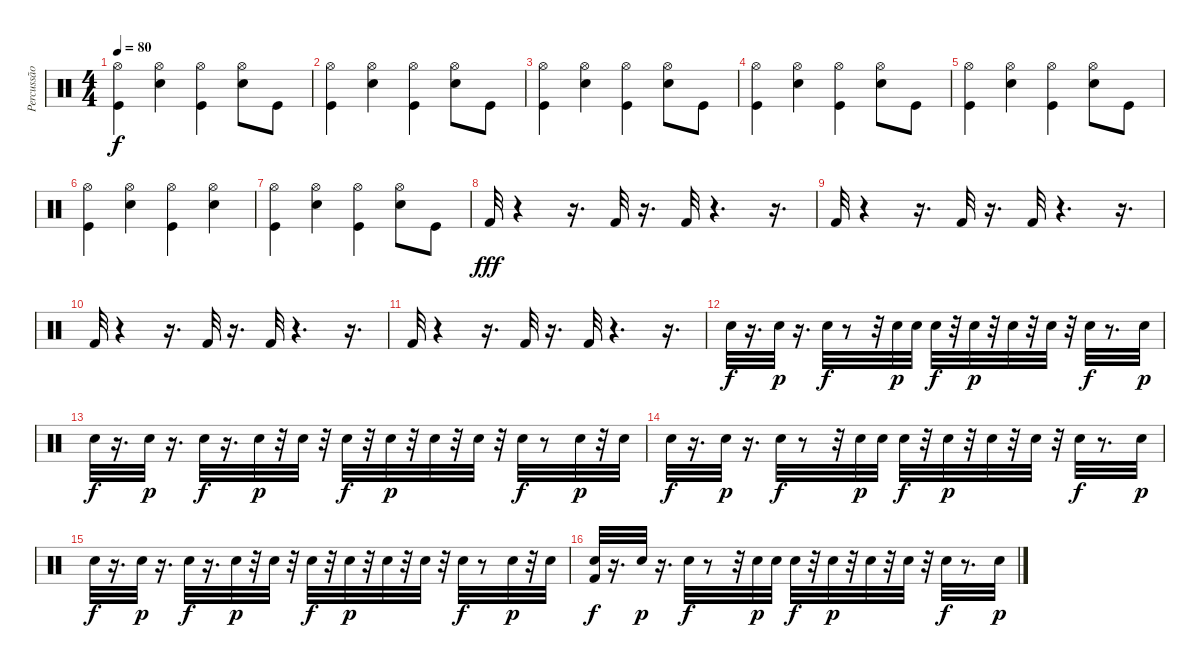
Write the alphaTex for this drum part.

\track ("Percussão" "Percussão") {instrument percussion}
\staff {score}
\articulation defaults
\ts (4 4)
\tempo 80
\clef neutral
\ks c
("Hi-Hat (open)" "Kick (hit)").4{dy f} ("Hi-Hat (open)" "Electric Snare (hit)").4 ("Hi-Hat (open)" "Kick (hit)").4 ("Hi-Hat (open)" "Electric Snare (hit)").8 "Kick (hit)".8 |
("Hi-Hat (open)" "Kick (hit)").4 ("Hi-Hat (open)" "Electric Snare (hit)").4 ("Hi-Hat (open)" "Kick (hit)").4 ("Hi-Hat (open)" "Electric Snare (hit)").8 "Kick (hit)".8 |
("Hi-Hat (open)" "Kick (hit)").4 ("Hi-Hat (open)" "Electric Snare (hit)").4 ("Hi-Hat (open)" "Kick (hit)").4 ("Hi-Hat (open)" "Electric Snare (hit)").8 "Kick (hit)".8 |
("Hi-Hat (open)" "Kick (hit)").4 ("Hi-Hat (open)" "Electric Snare (hit)").4 ("Hi-Hat (open)" "Kick (hit)").4 ("Hi-Hat (open)" "Electric Snare (hit)").8 "Kick (hit)".8 |
("Hi-Hat (open)" "Kick (hit)").4 ("Hi-Hat (open)" "Electric Snare (hit)").4 ("Hi-Hat (open)" "Kick (hit)").4 ("Hi-Hat (open)" "Electric Snare (hit)").8 "Kick (hit)".8 |
("Hi-Hat (open)" "Kick (hit)").4 ("Hi-Hat (open)" "Electric Snare (hit)").4 ("Hi-Hat (open)" "Kick (hit)").4 ("Hi-Hat (open)" "Electric Snare (hit)").4 |
("Hi-Hat (open)" "Kick (hit)").4 ("Hi-Hat (open)" "Electric Snare (hit)").4 ("Hi-Hat (open)" "Kick (hit)").4 ("Hi-Hat (open)" "Electric Snare (hit)").8 "Kick (hit)".8 |
"Kick (hit) 2".32{dy fff} r.4 r.16{d} "Kick (hit) 2".32 r.16{d} "Kick (hit) 2".32 r.4{d} r.16{d} |
"Kick (hit) 2".32 r.4 r.16{d} "Kick (hit) 2".32 r.16{d} "Kick (hit) 2".32 r.4{d} r.16{d} |
"Kick (hit) 2".32 r.4 r.16{d} "Kick (hit) 2".32 r.16{d} "Kick (hit) 2".32 r.4{d} r.16{d} |
"Kick (hit) 2".32 r.4 r.16{d} "Kick (hit) 2".32 r.16{d} "Kick (hit) 2".32 r.4{d} r.16{d} |
"Snare (hit) 2".32{dy f} r.16{d} "Snare (hit) 2".32{dy p} r.16{d} "Snare (hit) 2".32{dy f} r.8 r.32 "Snare (hit) 2".32{dy p} "Snare (hit) 2".32 "Snare (hit) 2".32{dy f} r.32 "Snare (hit) 2".32{dy p} r.32 "Snare (hit) 2".32 r.32 "Snare (hit) 2".32 r.32 "Snare (hit) 2".32{dy f} r.8{d} "Snare (hit) 2".32{dy p} |
"Snare (hit) 2".32{dy f} r.16{d} "Snare (hit) 2".32{dy p} r.16{d} "Snare (hit) 2".32{dy f} r.16{d} "Snare (hit) 2".32{dy p} r.32 "Snare (hit) 2".32 r.32 "Snare (hit) 2".32{dy f} r.32 "Snare (hit) 2".32{dy p} r.32 "Snare (hit) 2".32 r.32 "Snare (hit) 2".32 r.32 "Snare (hit) 2".32{dy f} r.8 "Snare (hit) 2".32{dy p} r.32 "Snare (hit) 2".32 |
"Snare (hit) 2".32{dy f} r.16{d} "Snare (hit) 2".32{dy p} r.16{d} "Snare (hit) 2".32{dy f} r.8 r.32 "Snare (hit) 2".32{dy p} "Snare (hit) 2".32 "Snare (hit) 2".32{dy f} r.32 "Snare (hit) 2".32{dy p} r.32 "Snare (hit) 2".32 r.32 "Snare (hit) 2".32 r.32 "Snare (hit) 2".32{dy f} r.8{d} "Snare (hit) 2".32{dy p} |
"Snare (hit) 2".32{dy f} r.16{d} "Snare (hit) 2".32{dy p} r.16{d} "Snare (hit) 2".32{dy f} r.16{d} "Snare (hit) 2".32{dy p} r.32 "Snare (hit) 2".32 r.32 "Snare (hit) 2".32{dy f} r.32 "Snare (hit) 2".32{dy p} r.32 "Snare (hit) 2".32 r.32 "Snare (hit) 2".32 r.32 "Snare (hit) 2".32{dy f} r.8 "Snare (hit) 2".32{dy p} r.32 "Snare (hit) 2".32 |
("Snare (hit) 2" "Kick (hit) 2").32{dy f} r.16{d} "Snare (hit) 2".32{dy p} r.16{d} "Snare (hit) 2".32{dy f} r.8 r.32 "Snare (hit) 2".32{dy p} "Snare (hit) 2".32 "Snare (hit) 2".32{dy f} r.32 "Snare (hit) 2".32{dy p} r.32 "Snare (hit) 2".32 r.32 "Snare (hit) 2".32 r.32 "Snare (hit) 2".32{dy f} r.8{d} "Snare (hit) 2".32{dy p}
